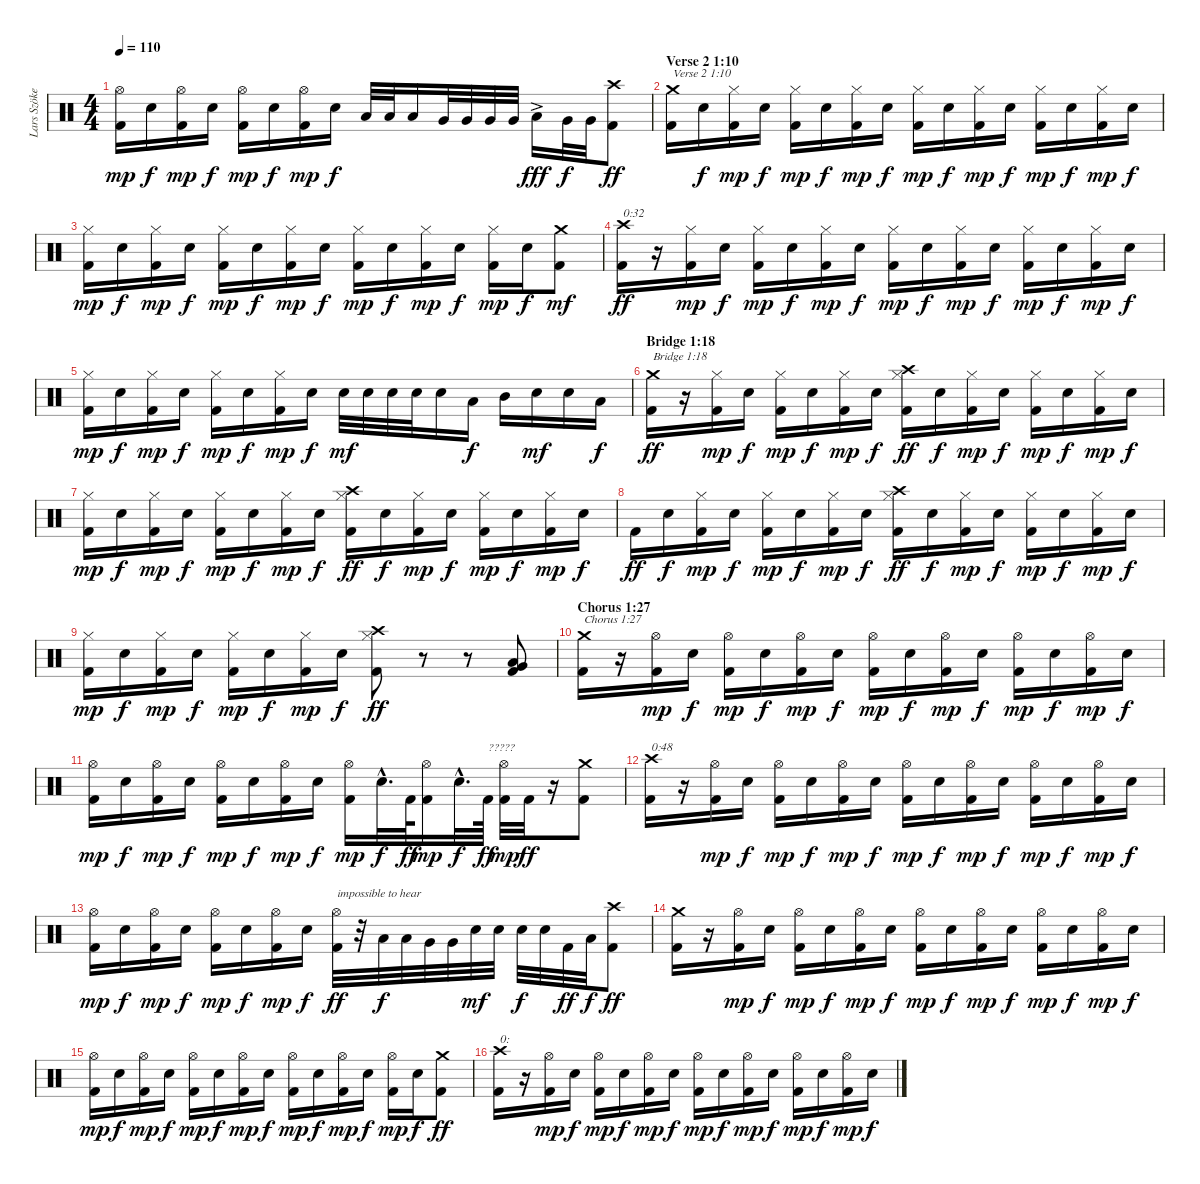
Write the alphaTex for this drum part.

\track ("Lars Szöke (Drums)" "Lars Szöke") {instrument percussion}
\staff {score}
\articulation defaults
\ts (4 4)
\tempo 110
\clef neutral
\ks c
("Kick (hit) 2" "Hi-Hat (open)").16{dy mp} "Electric Snare (hit)".16{dy f} ("Kick (hit) 2" "Hi-Hat (open)").16{dy mp} "Electric Snare (hit)".16{dy f} ("Kick (hit) 2" "Hi-Hat (open)").16{dy mp} "Electric Snare (hit)".16{dy f} ("Kick (hit) 2" "Hi-Hat (open)").16{dy mp} "Electric Snare (hit)".16{dy f} "Low Tom (hit)".32 "Low Tom (hit)".32 "Low Tom (hit)".16 "Very Low Tom (hit)".32 "Very Low Tom (hit)".32 "Very Low Tom (hit)".32 "Very Low Tom (hit)".32 "Low Floor Tom (hit)"{ac}.16{dy fff} "Very Low Tom (hit)".32{dy f} "Very Low Tom (hit)".32 ("Kick (hit) 2" "Crash high (hit)").8{dy ff} |
\section ("" "Verse 2 1:10")
("Kick (hit) 2" "Crash medium (hit)").16{txt "Verse 2 1:10"} "Electric Snare (hit)".16{dy f} ("Kick (hit) 2" "Hi-Hat (closed)").16{dy mp} "Electric Snare (hit)".16{dy f} ("Kick (hit) 2" "Hi-Hat (closed)").16{dy mp} "Electric Snare (hit)".16{dy f} ("Kick (hit) 2" "Hi-Hat (closed)").16{dy mp} "Electric Snare (hit)".16{dy f} ("Kick (hit) 2" "Hi-Hat (closed)").16{dy mp} "Electric Snare (hit)".16{dy f} ("Kick (hit) 2" "Hi-Hat (closed)").16{dy mp} "Electric Snare (hit)".16{dy f} ("Kick (hit) 2" "Hi-Hat (closed)").16{dy mp} "Electric Snare (hit)".16{dy f} ("Kick (hit) 2" "Hi-Hat (closed)").16{dy mp} "Electric Snare (hit)".16{dy f} |
("Kick (hit) 2" "Hi-Hat (closed)").16{dy mp} "Electric Snare (hit)".16{dy f} ("Kick (hit) 2" "Hi-Hat (closed)").16{dy mp} "Electric Snare (hit)".16{dy f} ("Kick (hit) 2" "Hi-Hat (closed)").16{dy mp} "Electric Snare (hit)".16{dy f} ("Kick (hit) 2" "Hi-Hat (closed)").16{dy mp} "Electric Snare (hit)".16{dy f} ("Kick (hit) 2" "Hi-Hat (closed)").16{dy mp} "Electric Snare (hit)".16{dy f} ("Kick (hit) 2" "Hi-Hat (closed)").16{dy mp} "Electric Snare (hit)".16{dy f} ("Kick (hit) 2" "Hi-Hat (closed)").16{dy mp} "Electric Snare (hit)".16{dy f} ("Kick (hit) 2" "Crash medium (hit)").8{dy mf} |
("Kick (hit) 2" "Crash high (hit)").16{txt "0:32" dy ff} r.16 ("Kick (hit) 2" "Hi-Hat (closed)").16{dy mp} "Electric Snare (hit)".16{dy f} ("Kick (hit) 2" "Hi-Hat (closed)").16{dy mp} "Electric Snare (hit)".16{dy f} ("Kick (hit) 2" "Hi-Hat (closed)").16{dy mp} "Electric Snare (hit)".16{dy f} ("Kick (hit) 2" "Hi-Hat (closed)").16{dy mp} "Electric Snare (hit)".16{dy f} ("Kick (hit) 2" "Hi-Hat (closed)").16{dy mp} "Electric Snare (hit)".16{dy f} ("Kick (hit) 2" "Hi-Hat (closed)").16{dy mp} "Electric Snare (hit)".16{dy f} ("Kick (hit) 2" "Hi-Hat (closed)").16{dy mp} "Electric Snare (hit)".16{dy f} |
("Kick (hit) 2" "Hi-Hat (closed)").16{dy mp} "Electric Snare (hit)".16{dy f} ("Kick (hit) 2" "Hi-Hat (closed)").16{dy mp} "Electric Snare (hit)".16{dy f} ("Kick (hit) 2" "Hi-Hat (closed)").16{dy mp} "Electric Snare (hit)".16{dy f} ("Kick (hit) 2" "Hi-Hat (closed)").16{dy mp} "Electric Snare (hit)".16{dy f} "Electric Snare (hit)".32{dy mf} "Electric Snare (hit)".32 "Electric Snare (hit)".32 "Electric Snare (hit)".32 "Electric Snare (hit)".16 "Low Tom (hit)".16{dy f} "Mid Tom (hit)".16 "Electric Snare (hit)".16{dy mf} "Electric Snare (hit)".16 "Low Tom (hit)".16{dy f} |
\section ("" "Bridge 1:18")
("Kick (hit) 2" "Crash medium (hit)").16{txt "Bridge 1:18" dy ff} r.16 ("Kick (hit) 2" "Hi-Hat (closed)").16{dy mp} "Electric Snare (hit)".16{dy f} ("Kick (hit) 2" "Hi-Hat (closed)").16{dy mp} "Electric Snare (hit)".16{dy f} ("Kick (hit) 2" "Hi-Hat (closed)").16{dy mp} "Electric Snare (hit)".16{dy f} ("Kick (hit) 2" "Hi-Hat (closed)" "Crash high (hit)").16{dy ff} "Electric Snare (hit)".16{dy f} ("Kick (hit) 2" "Hi-Hat (closed)").16{dy mp} "Electric Snare (hit)".16{dy f} ("Kick (hit) 2" "Hi-Hat (closed)").16{dy mp} "Electric Snare (hit)".16{dy f} ("Kick (hit) 2" "Hi-Hat (closed)").16{dy mp} "Electric Snare (hit)".16{dy f} |
("Kick (hit) 2" "Hi-Hat (closed)").16{dy mp} "Electric Snare (hit)".16{dy f} ("Kick (hit) 2" "Hi-Hat (closed)").16{dy mp} "Electric Snare (hit)".16{dy f} ("Kick (hit) 2" "Hi-Hat (closed)").16{dy mp} "Electric Snare (hit)".16{dy f} ("Kick (hit) 2" "Hi-Hat (closed)").16{dy mp} "Electric Snare (hit)".16{dy f} ("Kick (hit) 2" "Hi-Hat (closed)" "Crash high (hit)").16{dy ff} "Electric Snare (hit)".16{dy f} ("Kick (hit) 2" "Hi-Hat (closed)").16{dy mp} "Electric Snare (hit)".16{dy f} ("Kick (hit) 2" "Hi-Hat (closed)").16{dy mp} "Electric Snare (hit)".16{dy f} ("Kick (hit) 2" "Hi-Hat (closed)").16{dy mp} "Electric Snare (hit)".16{dy f} |
"Kick (hit) 2".16{dy ff} "Electric Snare (hit)".16{dy f} ("Kick (hit) 2" "Hi-Hat (closed)").16{dy mp} "Electric Snare (hit)".16{dy f} ("Kick (hit) 2" "Hi-Hat (closed)").16{dy mp} "Electric Snare (hit)".16{dy f} ("Kick (hit) 2" "Hi-Hat (closed)").16{dy mp} "Electric Snare (hit)".16{dy f} ("Kick (hit) 2" "Hi-Hat (closed)" "Crash high (hit)").16{dy ff} "Electric Snare (hit)".16{dy f} ("Kick (hit) 2" "Hi-Hat (closed)").16{dy mp} "Electric Snare (hit)".16{dy f} ("Kick (hit) 2" "Hi-Hat (closed)").16{dy mp} "Electric Snare (hit)".16{dy f} ("Kick (hit) 2" "Hi-Hat (closed)").16{dy mp} "Electric Snare (hit)".16{dy f} |
("Kick (hit) 2" "Hi-Hat (closed)").16{dy mp} "Electric Snare (hit)".16{dy f} ("Kick (hit) 2" "Hi-Hat (closed)").16{dy mp} "Electric Snare (hit)".16{dy f} ("Kick (hit) 2" "Hi-Hat (closed)").16{dy mp} "Electric Snare (hit)".16{dy f} ("Kick (hit) 2" "Hi-Hat (closed)").16{dy mp} "Electric Snare (hit)".16{dy f} ("Kick (hit) 2" "Hi-Hat (closed)" "Crash high (hit)").8{dy ff} r.8 r.8 ("Kick (hit) 2" "Low Tom (hit)" "Very Low Tom (hit)").8 |
\section ("" "Chorus 1:27")
("Kick (hit) 2" "Crash medium (hit)").16{txt "Chorus 1:27"} r.16 ("Kick (hit) 2" "Hi-Hat (open)").16{dy mp} "Electric Snare (hit)".16{dy f} ("Kick (hit) 2" "Hi-Hat (open)").16{dy mp} "Electric Snare (hit)".16{dy f} ("Kick (hit) 2" "Hi-Hat (open)").16{dy mp} "Electric Snare (hit)".16{dy f} ("Kick (hit) 2" "Hi-Hat (open)").16{dy mp} "Electric Snare (hit)".16{dy f} ("Kick (hit) 2" "Hi-Hat (open)").16{dy mp} "Electric Snare (hit)".16{dy f} ("Kick (hit) 2" "Hi-Hat (open)").16{dy mp} "Electric Snare (hit)".16{dy f} ("Kick (hit) 2" "Hi-Hat (open)").16{dy mp} "Electric Snare (hit)".16{dy f} |
("Kick (hit) 2" "Hi-Hat (open)").16{dy mp} "Electric Snare (hit)".16{dy f} ("Kick (hit) 2" "Hi-Hat (open)").16{dy mp} "Electric Snare (hit)".16{dy f} ("Kick (hit) 2" "Hi-Hat (open)").16{dy mp} "Electric Snare (hit)".16{dy f} ("Kick (hit) 2" "Hi-Hat (open)").16{dy mp} "Electric Snare (hit)".16{dy f} ("Kick (hit) 2" "Hi-Hat (open)").16{dy mp} "Electric Snare (hit)"{hac}.32{d dy f} "Kick (hit) 2".64{dy ff} ("Kick (hit) 2" "Hi-Hat (open)").16{dy mp} "Electric Snare (hit)"{hac}.32{d dy f} "Kick (hit) 2".64{txt "?????" dy ff} ("Kick (hit) 2" "Hi-Hat (open)").32{dy mp} "Kick (hit) 2".32{dy ff} r.16 ("Kick (hit) 2" "Crash medium (hit)").8 |
("Kick (hit) 2" "Crash high (hit)").16{txt "0:48"} r.16 ("Kick (hit) 2" "Hi-Hat (open)").16{dy mp} "Electric Snare (hit)".16{dy f} ("Kick (hit) 2" "Hi-Hat (open)").16{dy mp} "Electric Snare (hit)".16{dy f} ("Kick (hit) 2" "Hi-Hat (open)").16{dy mp} "Electric Snare (hit)".16{dy f} ("Kick (hit) 2" "Hi-Hat (open)").16{dy mp} "Electric Snare (hit)".16{dy f} ("Kick (hit) 2" "Hi-Hat (open)").16{dy mp} "Electric Snare (hit)".16{dy f} ("Kick (hit) 2" "Hi-Hat (open)").16{dy mp} "Electric Snare (hit)".16{dy f} ("Kick (hit) 2" "Hi-Hat (open)").16{dy mp} "Electric Snare (hit)".16{dy f} |
("Kick (hit) 2" "Hi-Hat (open)").16{dy mp} "Electric Snare (hit)".16{dy f} ("Kick (hit) 2" "Hi-Hat (open)").16{dy mp} "Electric Snare (hit)".16{dy f} ("Kick (hit) 2" "Hi-Hat (open)").16{dy mp} "Electric Snare (hit)".16{dy f} ("Kick (hit) 2" "Hi-Hat (open)").16{dy mp} "Electric Snare (hit)".16{dy f} ("Kick (hit) 2" "Hi-Hat (open)").32{txt "impossible to hear" dy ff} r.32 "Low Tom (hit)".32{dy f} "Low Tom (hit)".32 "Very Low Tom (hit)".32 "Very Low Tom (hit)".32 "Electric Snare (hit)".32{dy mf} "Electric Snare (hit)".32 "Electric Snare (hit)".32{dy f} "Electric Snare (hit)".32 "Kick (hit) 2".32{dy ff} "Low Tom (hit)".32{dy f} ("Kick (hit) 2" "Crash high (hit)").8{dy ff} |
("Kick (hit) 2" "Crash medium (hit)").16 r.16 ("Kick (hit) 2" "Hi-Hat (open)").16{dy mp} "Electric Snare (hit)".16{dy f} ("Kick (hit) 2" "Hi-Hat (open)").16{dy mp} "Electric Snare (hit)".16{dy f} ("Kick (hit) 2" "Hi-Hat (open)").16{dy mp} "Electric Snare (hit)".16{dy f} ("Kick (hit) 2" "Hi-Hat (open)").16{dy mp} "Electric Snare (hit)".16{dy f} ("Kick (hit) 2" "Hi-Hat (open)").16{dy mp} "Electric Snare (hit)".16{dy f} ("Kick (hit) 2" "Hi-Hat (open)").16{dy mp} "Electric Snare (hit)".16{dy f} ("Kick (hit) 2" "Hi-Hat (open)").16{dy mp} "Electric Snare (hit)".16{dy f} |
("Kick (hit) 2" "Hi-Hat (open)").16{dy mp} "Electric Snare (hit)".16{dy f} ("Kick (hit) 2" "Hi-Hat (open)").16{dy mp} "Electric Snare (hit)".16{dy f} ("Kick (hit) 2" "Hi-Hat (open)").16{dy mp} "Electric Snare (hit)".16{dy f} ("Kick (hit) 2" "Hi-Hat (open)").16{dy mp} "Electric Snare (hit)".16{dy f} ("Kick (hit) 2" "Hi-Hat (open)").16{dy mp} "Electric Snare (hit)".16{dy f} ("Kick (hit) 2" "Hi-Hat (open)").16{dy mp} "Electric Snare (hit)".16{dy f} ("Kick (hit) 2" "Hi-Hat (open)").16{dy mp} "Electric Snare (hit)".16{dy f} ("Kick (hit) 2" "Crash medium (hit)").8{dy ff} |
("Kick (hit) 2" "Crash high (hit)").16{txt "0:"} r.16 ("Kick (hit) 2" "Hi-Hat (open)").16{dy mp} "Electric Snare (hit)".16{dy f} ("Kick (hit) 2" "Hi-Hat (open)").16{dy mp} "Electric Snare (hit)".16{dy f} ("Kick (hit) 2" "Hi-Hat (open)").16{dy mp} "Electric Snare (hit)".16{dy f} ("Kick (hit) 2" "Hi-Hat (open)").16{dy mp} "Electric Snare (hit)".16{dy f} ("Kick (hit) 2" "Hi-Hat (open)").16{dy mp} "Electric Snare (hit)".16{dy f} ("Kick (hit) 2" "Hi-Hat (open)").16{dy mp} "Electric Snare (hit)".16{dy f} ("Kick (hit) 2" "Hi-Hat (open)").16{dy mp} "Electric Snare (hit)".16{dy f}
